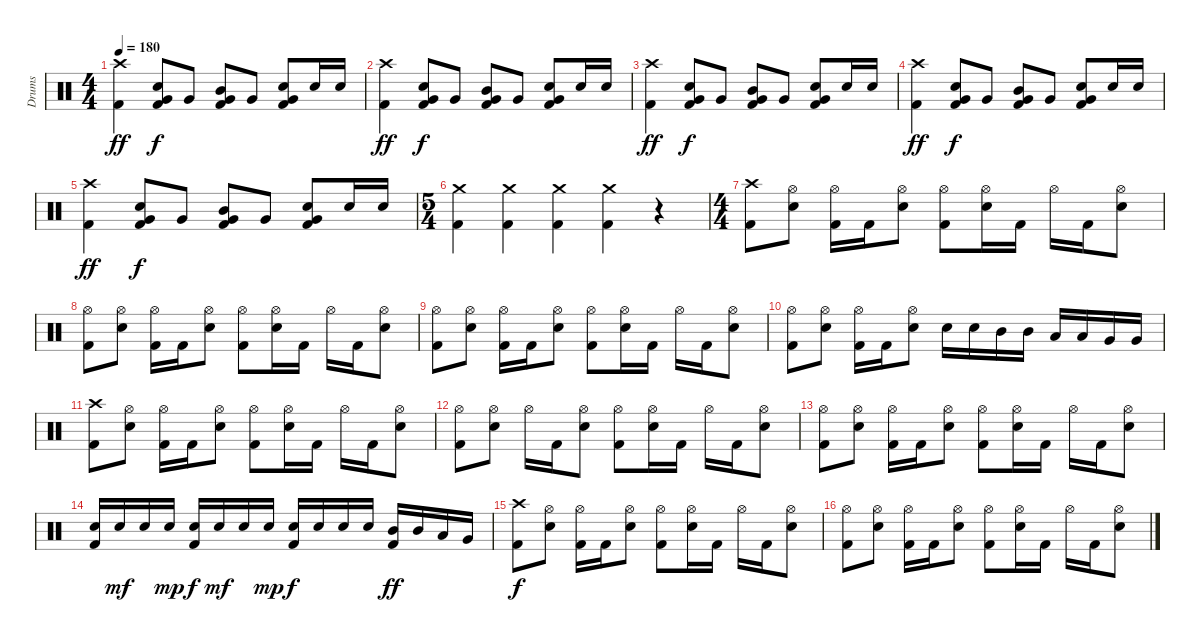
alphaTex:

\track ("Drums" "Drums") {instrument percussion}
\staff {score}
\articulation defaults
\ts (4 4)
\tempo 180
\clef neutral
\ks c
("Crash high (hit)" "Kick (hit) 2").4{dy ff} ("Very Low Tom (hit)" "Electric Snare (hit)" "Kick (hit) 2").8{dy f} "Very Low Tom (hit)".8 ("Mid Tom (hit)" "Very Low Tom (hit)" "Kick (hit) 2").8 "Very Low Tom (hit)".8 ("Very Low Tom (hit)" "Electric Snare (hit)" "Kick (hit) 2").8 "Electric Snare (hit)".16 "Electric Snare (hit)".16 |
("Crash high (hit)" "Kick (hit) 2").4{dy ff} ("Very Low Tom (hit)" "Electric Snare (hit)" "Kick (hit) 2").8{dy f} "Very Low Tom (hit)".8 ("Mid Tom (hit)" "Very Low Tom (hit)" "Kick (hit) 2").8 "Very Low Tom (hit)".8 ("Very Low Tom (hit)" "Electric Snare (hit)" "Kick (hit) 2").8 "Electric Snare (hit)".16 "Electric Snare (hit)".16 |
("Crash high (hit)" "Kick (hit) 2").4{dy ff} ("Very Low Tom (hit)" "Electric Snare (hit)" "Kick (hit) 2").8{dy f} "Very Low Tom (hit)".8 ("Mid Tom (hit)" "Very Low Tom (hit)" "Kick (hit) 2").8 "Very Low Tom (hit)".8 ("Very Low Tom (hit)" "Electric Snare (hit)" "Kick (hit) 2").8 "Electric Snare (hit)".16 "Electric Snare (hit)".16 |
("Crash high (hit)" "Kick (hit) 2").4{dy ff} ("Very Low Tom (hit)" "Electric Snare (hit)" "Kick (hit) 2").8{dy f} "Very Low Tom (hit)".8 ("Mid Tom (hit)" "Very Low Tom (hit)" "Kick (hit) 2").8 "Very Low Tom (hit)".8 ("Very Low Tom (hit)" "Electric Snare (hit)" "Kick (hit) 2").8 "Electric Snare (hit)".16 "Electric Snare (hit)".16 |
("Crash high (hit)" "Kick (hit) 2").4{dy ff} ("Very Low Tom (hit)" "Electric Snare (hit)" "Kick (hit) 2").8{dy f} "Very Low Tom (hit)".8 ("Mid Tom (hit)" "Very Low Tom (hit)" "Kick (hit) 2").8 "Very Low Tom (hit)".8 ("Very Low Tom (hit)" "Electric Snare (hit)" "Kick (hit) 2").8 "Electric Snare (hit)".16 "Electric Snare (hit)".16 |
\ts (5 4)
("Crash medium (hit)" "Kick (hit) 2").4 ("Crash medium (hit)" "Kick (hit) 2").4 ("Crash medium (hit)" "Kick (hit) 2").4 ("Crash medium (hit)" "Kick (hit) 2").4 r.4 |
\ts (4 4)
("Crash high (hit)" "Kick (hit) 2").8 ("Hi-Hat (open)" "Electric Snare (hit)").8 ("Hi-Hat (open)" "Kick (hit) 2").16 "Kick (hit) 2".16 ("Hi-Hat (open)" "Electric Snare (hit)").8 ("Hi-Hat (open)" "Kick (hit) 2").8 ("Hi-Hat (open)" "Electric Snare (hit)").16 "Kick (hit) 2".16 "Hi-Hat (open)".16 "Kick (hit) 2".16 ("Hi-Hat (open)" "Electric Snare (hit)").8 |
("Hi-Hat (open)" "Kick (hit) 2").8 ("Hi-Hat (open)" "Electric Snare (hit)").8 ("Hi-Hat (open)" "Kick (hit) 2").16 "Kick (hit) 2".16 ("Hi-Hat (open)" "Electric Snare (hit)").8 ("Hi-Hat (open)" "Kick (hit) 2").8 ("Hi-Hat (open)" "Electric Snare (hit)").16 "Kick (hit) 2".16 "Hi-Hat (open)".16 "Kick (hit) 2".16 ("Hi-Hat (open)" "Electric Snare (hit)").8 |
("Hi-Hat (open)" "Kick (hit) 2").8 ("Hi-Hat (open)" "Electric Snare (hit)").8 ("Hi-Hat (open)" "Kick (hit) 2").16 "Kick (hit) 2".16 ("Hi-Hat (open)" "Electric Snare (hit)").8 ("Hi-Hat (open)" "Kick (hit) 2").8 ("Hi-Hat (open)" "Electric Snare (hit)").16 "Kick (hit) 2".16 "Hi-Hat (open)".16 "Kick (hit) 2".16 ("Hi-Hat (open)" "Electric Snare (hit)").8 |
("Hi-Hat (open)" "Kick (hit) 2").8 ("Hi-Hat (open)" "Electric Snare (hit)").8 ("Hi-Hat (open)" "Kick (hit) 2").16 "Kick (hit) 2".16 ("Hi-Hat (open)" "Electric Snare (hit)").8 "Electric Snare (hit)".16 "Electric Snare (hit)".16 "Mid Tom (hit)".16 "Mid Tom (hit)".16 "Low Tom (hit)".16 "Low Tom (hit)".16 "Very Low Tom (hit)".16 "Very Low Tom (hit)".16 |
("Crash high (hit)" "Kick (hit) 2").8 ("Hi-Hat (open)" "Electric Snare (hit)").8 ("Hi-Hat (open)" "Kick (hit) 2").16 "Kick (hit) 2".16 ("Hi-Hat (open)" "Electric Snare (hit)").8 ("Hi-Hat (open)" "Kick (hit) 2").8 ("Hi-Hat (open)" "Electric Snare (hit)").16 "Kick (hit) 2".16 "Hi-Hat (open)".16 "Kick (hit) 2".16 ("Hi-Hat (open)" "Electric Snare (hit)").8 |
("Hi-Hat (open)" "Kick (hit) 2").8 ("Hi-Hat (open)" "Electric Snare (hit)").8 "Hi-Hat (open)".16 "Kick (hit) 2".16 ("Hi-Hat (open)" "Electric Snare (hit)").8 ("Hi-Hat (open)" "Kick (hit) 2").8 ("Hi-Hat (open)" "Electric Snare (hit)").16 "Kick (hit) 2".16 "Hi-Hat (open)".16 "Kick (hit) 2".16 ("Hi-Hat (open)" "Electric Snare (hit)").8 |
("Hi-Hat (open)" "Kick (hit) 2").8 ("Hi-Hat (open)" "Electric Snare (hit)").8 ("Hi-Hat (open)" "Kick (hit) 2").16 "Kick (hit) 2".16 ("Hi-Hat (open)" "Electric Snare (hit)").8 ("Hi-Hat (open)" "Kick (hit) 2").8 ("Hi-Hat (open)" "Electric Snare (hit)").16 "Kick (hit) 2".16 "Hi-Hat (open)".16 "Kick (hit) 2".16 ("Hi-Hat (open)" "Electric Snare (hit)").8 |
("Electric Snare (hit)" "Kick (hit) 2").16 "Electric Snare (hit)".16{dy mf} "Electric Snare (hit)".16 "Electric Snare (hit)".16{dy mp} ("Electric Snare (hit)" "Kick (hit) 2").16{dy f} "Electric Snare (hit)".16{dy mf} "Electric Snare (hit)".16 "Electric Snare (hit)".16{dy mp} ("Electric Snare (hit)" "Kick (hit) 2").16{dy f} "Electric Snare (hit)".16 "Electric Snare (hit)".16 "Electric Snare (hit)".16 ("Mid Tom (hit)" "Kick (hit) 2").16{dy ff} "Mid Tom (hit)".16 "Low Tom (hit)".16 "Very Low Tom (hit)".16 |
("Crash high (hit)" "Kick (hit) 2").8{dy f} ("Hi-Hat (open)" "Electric Snare (hit)").8 ("Hi-Hat (open)" "Kick (hit) 2").16 "Kick (hit) 2".16 ("Hi-Hat (open)" "Electric Snare (hit)").8 ("Hi-Hat (open)" "Kick (hit) 2").8 ("Hi-Hat (open)" "Electric Snare (hit)").16 "Kick (hit) 2".16 "Hi-Hat (open)".16 "Kick (hit) 2".16 ("Hi-Hat (open)" "Electric Snare (hit)").8 |
("Hi-Hat (open)" "Kick (hit) 2").8 ("Hi-Hat (open)" "Electric Snare (hit)").8 ("Hi-Hat (open)" "Kick (hit) 2").16 "Kick (hit) 2".16 ("Hi-Hat (open)" "Electric Snare (hit)").8 ("Hi-Hat (open)" "Kick (hit) 2").8 ("Hi-Hat (open)" "Electric Snare (hit)").16 "Kick (hit) 2".16 "Hi-Hat (open)".16 "Kick (hit) 2".16 ("Hi-Hat (open)" "Electric Snare (hit)").8
